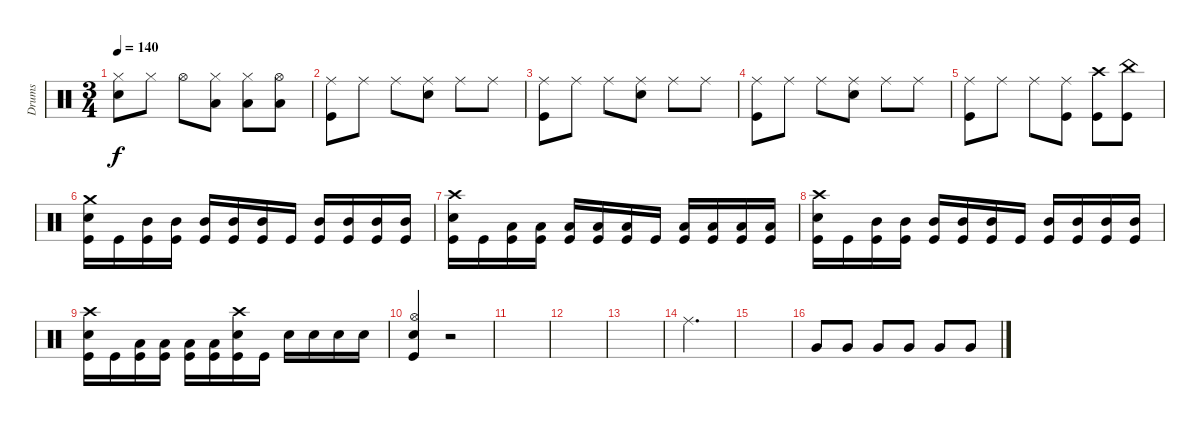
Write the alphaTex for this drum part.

\track ("Drums" "Drums") {instrument percussion}
\staff {score}
\articulation defaults
\ts (3 4)
\tempo 140
\clef neutral
\ks c
("Snare (hit) 2" "Hi-Hat (closed)").8{dy f} "Hi-Hat (closed)".8 "Hi-Hat (open)".8 ("Low Tom (hit)" "Hi-Hat (closed)").8 ("Low Tom (hit)" "Hi-Hat (closed)").8 ("Low Tom (hit)" "Hi-Hat (open)").8 |
("Kick (hit)" "Ride (middle)").8 "Ride (middle)".8 "Ride (middle)".8 ("Snare (hit) 2" "Ride (middle)").8 "Ride (middle)".8 "Ride (middle)".8 |
("Kick (hit)" "Ride (middle)").8 "Ride (middle)".8 "Ride (middle)".8 ("Snare (hit) 2" "Ride (middle)").8 "Ride (middle)".8 "Ride (middle)".8 |
("Kick (hit)" "Ride (middle)").8 "Ride (middle)".8 "Ride (middle)".8 ("Snare (hit) 2" "Ride (middle)").8 "Ride (middle)".8 "Ride (middle)".8 |
("Kick (hit)" "Ride (middle)").8 "Ride (middle)".8 "Ride (middle)".8 ("Kick (hit)" "Ride (middle)").8 ("Kick (hit)" "Crash high (hit)").8 ("Kick (hit)" "China (hit)").8 |
("Kick (hit)" "Snare (hit) 2" "Crash medium (hit)").16 "Kick (hit)".16 ("Kick (hit)" "Mid Tom (hit)").16 ("Kick (hit)" "Mid Tom (hit)").16 ("Kick (hit)" "Mid Tom (hit)").16 ("Kick (hit)" "Mid Tom (hit)").16 ("Kick (hit)" "Mid Tom (hit)").16 "Kick (hit)".16 ("Kick (hit)" "Mid Tom (hit)").16 ("Kick (hit)" "Mid Tom (hit)").16 ("Kick (hit)" "Mid Tom (hit)").16 ("Kick (hit)" "Mid Tom (hit)").16 |
("Kick (hit)" "Snare (hit) 2" "Crash high (hit)").16 "Kick (hit)".16 ("Kick (hit)" "Low Tom (hit)").16 ("Kick (hit)" "Low Tom (hit)").16 ("Kick (hit)" "Low Tom (hit)").16 ("Kick (hit)" "Low Tom (hit)").16 ("Kick (hit)" "Low Tom (hit)").16 "Kick (hit)".16 ("Kick (hit)" "Low Tom (hit)").16 ("Kick (hit)" "Low Tom (hit)").16 ("Kick (hit)" "Low Tom (hit)").16 ("Kick (hit)" "Low Tom (hit)").16 |
("Kick (hit)" "Snare (hit) 2" "Crash high (hit)").16 "Kick (hit)".16 ("Kick (hit)" "Mid Tom (hit)").16 ("Kick (hit)" "Mid Tom (hit)").16 ("Kick (hit)" "Mid Tom (hit)").16 ("Kick (hit)" "Mid Tom (hit)").16 ("Kick (hit)" "Mid Tom (hit)").16 "Kick (hit)".16 ("Kick (hit)" "Mid Tom (hit)").16 ("Kick (hit)" "Mid Tom (hit)").16 ("Kick (hit)" "Mid Tom (hit)").16 ("Kick (hit)" "Mid Tom (hit)").16 |
("Kick (hit)" "Snare (hit) 2" "Crash high (hit)").16 "Kick (hit)".16 ("Kick (hit)" "Low Tom (hit)").16 ("Kick (hit)" "Low Tom (hit)").16 ("Kick (hit)" "Low Tom (hit)").16 ("Kick (hit)" "Low Tom (hit)").16 ("Kick (hit)" "Snare (hit) 2" "Crash high (hit)").16 "Kick (hit)".16 "Snare (hit) 2".16 "Snare (hit) 2".16 "Snare (hit) 2".16 "Snare (hit) 2".16 |
("Kick (hit)" "Snare (hit) 2" "Hi-Hat (open)").4 r.2 |
|
|
|
"Ride (middle)".2{d} |
|
"Very Low Tom (hit)".8 "Very Low Tom (hit)".8 "Very Low Tom (hit)".8 "Very Low Tom (hit)".8 "Very Low Tom (hit)".8 "Very Low Tom (hit)".8
